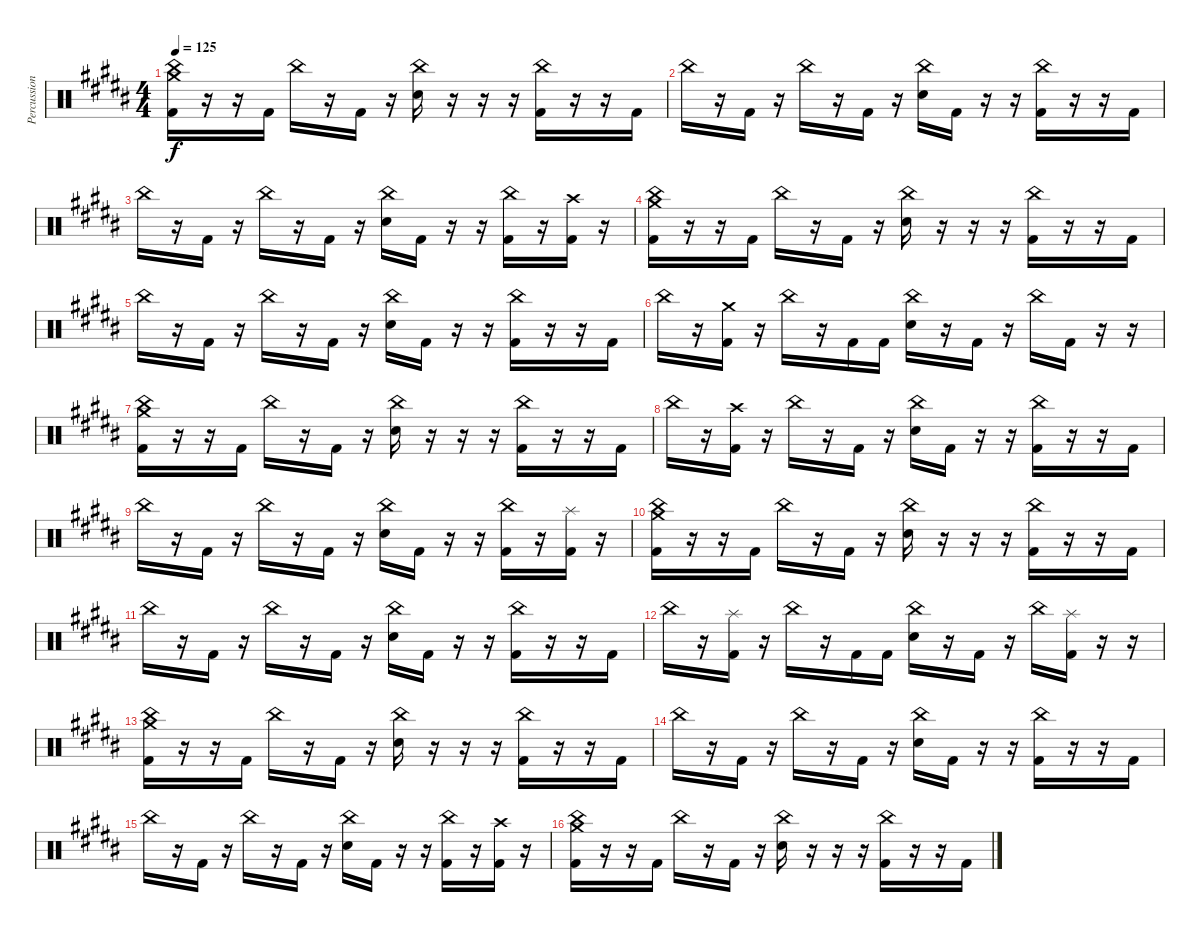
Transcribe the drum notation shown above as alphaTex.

\track ("Percussion" "Percussion") {instrument percussion}
\staff {score}
\articulation defaults
\ts (4 4)
\tempo 125
\clef neutral
\ks g#minor
("Crash medium (hit)" "China (hit)" "Kick (hit) 2").16{dy f} r.16 r.16 "Kick (hit) 2".16 "China (hit)".16 r.16 "Kick (hit) 2".16 r.16 ("China (hit)" "Electric Snare (hit)").16 r.16 r.16 r.16 ("China (hit)" "Kick (hit) 2").16 r.16 r.16 "Kick (hit) 2".16 |
"China (hit)".16 r.16 "Kick (hit) 2".16 r.16 "China (hit)".16 r.16 "Kick (hit) 2".16 r.16 ("China (hit)" "Electric Snare (hit)").16 "Kick (hit) 2".16 r.16 r.16 ("China (hit)" "Kick (hit) 2").16 r.16 r.16 "Kick (hit) 2".16 |
"China (hit)".16 r.16 "Kick (hit) 2".16 r.16 "China (hit)".16 r.16 "Kick (hit) 2".16 r.16 ("China (hit)" "Electric Snare (hit)").16 "Kick (hit) 2".16 r.16 r.16 ("China (hit)" "Kick (hit) 2").16 r.16 ("Crash high (hit)" "Kick (hit) 2").16 r.16 |
("Crash medium (hit)" "China (hit)" "Kick (hit) 2").16 r.16 r.16 "Kick (hit) 2".16 "China (hit)".16 r.16 "Kick (hit) 2".16 r.16 ("China (hit)" "Electric Snare (hit)").16 r.16 r.16 r.16 ("China (hit)" "Kick (hit) 2").16 r.16 r.16 "Kick (hit) 2".16 |
"China (hit)".16 r.16 "Kick (hit) 2".16 r.16 "China (hit)".16 r.16 "Kick (hit) 2".16 r.16 ("China (hit)" "Electric Snare (hit)").16 "Kick (hit) 2".16 r.16 r.16 ("China (hit)" "Kick (hit) 2").16 r.16 r.16 "Kick (hit) 2".16 |
"China (hit)".16 r.16 ("Crash medium (hit)" "Kick (hit) 2").16 r.16 "China (hit)".16 r.16 "Kick (hit) 2".16 "Kick (hit) 2".16 ("China (hit)" "Electric Snare (hit)").16 r.16 "Kick (hit) 2".16 r.16 "China (hit)".16 "Kick (hit) 2".16 r.16 r.16 |
("Crash medium (hit)" "China (hit)" "Kick (hit) 2").16 r.16 r.16 "Kick (hit) 2".16 "China (hit)".16 r.16 "Kick (hit) 2".16 r.16 ("China (hit)" "Electric Snare (hit)").16 r.16 r.16 r.16 ("China (hit)" "Kick (hit) 2").16 r.16 r.16 "Kick (hit) 2".16 |
"China (hit)".16 r.16 ("Crash high (hit)" "Kick (hit) 2").16 r.16 "China (hit)".16 r.16 "Kick (hit) 2".16 r.16 ("China (hit)" "Electric Snare (hit)").16 "Kick (hit) 2".16 r.16 r.16 ("China (hit)" "Kick (hit) 2").16 r.16 r.16 "Kick (hit) 2".16 |
"China (hit)".16 r.16 "Kick (hit) 2".16 r.16 "China (hit)".16 r.16 "Kick (hit) 2".16 r.16 ("China (hit)" "Electric Snare (hit)").16 "Kick (hit) 2".16 r.16 r.16 ("China (hit)" "Kick (hit) 2").16 r.16 ("Splash (hit)" "Kick (hit) 2").16 r.16 |
("Crash medium (hit)" "China (hit)" "Kick (hit) 2").16 r.16 r.16 "Kick (hit) 2".16 "China (hit)".16 r.16 "Kick (hit) 2".16 r.16 ("China (hit)" "Electric Snare (hit)").16 r.16 r.16 r.16 ("China (hit)" "Kick (hit) 2").16 r.16 r.16 "Kick (hit) 2".16 |
"China (hit)".16 r.16 "Kick (hit) 2".16 r.16 "China (hit)".16 r.16 "Kick (hit) 2".16 r.16 ("China (hit)" "Electric Snare (hit)").16 "Kick (hit) 2".16 r.16 r.16 ("China (hit)" "Kick (hit) 2").16 r.16 r.16 "Kick (hit) 2".16 |
"China (hit)".16 r.16 ("Splash (hit)" "Kick (hit) 2").16 r.16 "China (hit)".16 r.16 "Kick (hit) 2".16 "Kick (hit) 2".16 ("China (hit)" "Electric Snare (hit)").16 r.16 "Kick (hit) 2".16 r.16 "China (hit)".16 ("Splash (hit)" "Kick (hit) 2").16 r.16 r.16 |
("Crash medium (hit)" "China (hit)" "Kick (hit) 2").16 r.16 r.16 "Kick (hit) 2".16 "China (hit)".16 r.16 "Kick (hit) 2".16 r.16 ("China (hit)" "Electric Snare (hit)").16 r.16 r.16 r.16 ("China (hit)" "Kick (hit) 2").16 r.16 r.16 "Kick (hit) 2".16 |
"China (hit)".16 r.16 "Kick (hit) 2".16 r.16 "China (hit)".16 r.16 "Kick (hit) 2".16 r.16 ("China (hit)" "Electric Snare (hit)").16 "Kick (hit) 2".16 r.16 r.16 ("China (hit)" "Kick (hit) 2").16 r.16 r.16 "Kick (hit) 2".16 |
"China (hit)".16 r.16 "Kick (hit) 2".16 r.16 "China (hit)".16 r.16 "Kick (hit) 2".16 r.16 ("China (hit)" "Electric Snare (hit)").16 "Kick (hit) 2".16 r.16 r.16 ("China (hit)" "Kick (hit) 2").16 r.16 ("Crash high (hit)" "Kick (hit) 2").16 r.16 |
("Crash medium (hit)" "China (hit)" "Kick (hit) 2").16 r.16 r.16 "Kick (hit) 2".16 "China (hit)".16 r.16 "Kick (hit) 2".16 r.16 ("China (hit)" "Electric Snare (hit)").16 r.16 r.16 r.16 ("China (hit)" "Kick (hit) 2").16 r.16 r.16 "Kick (hit) 2".16
